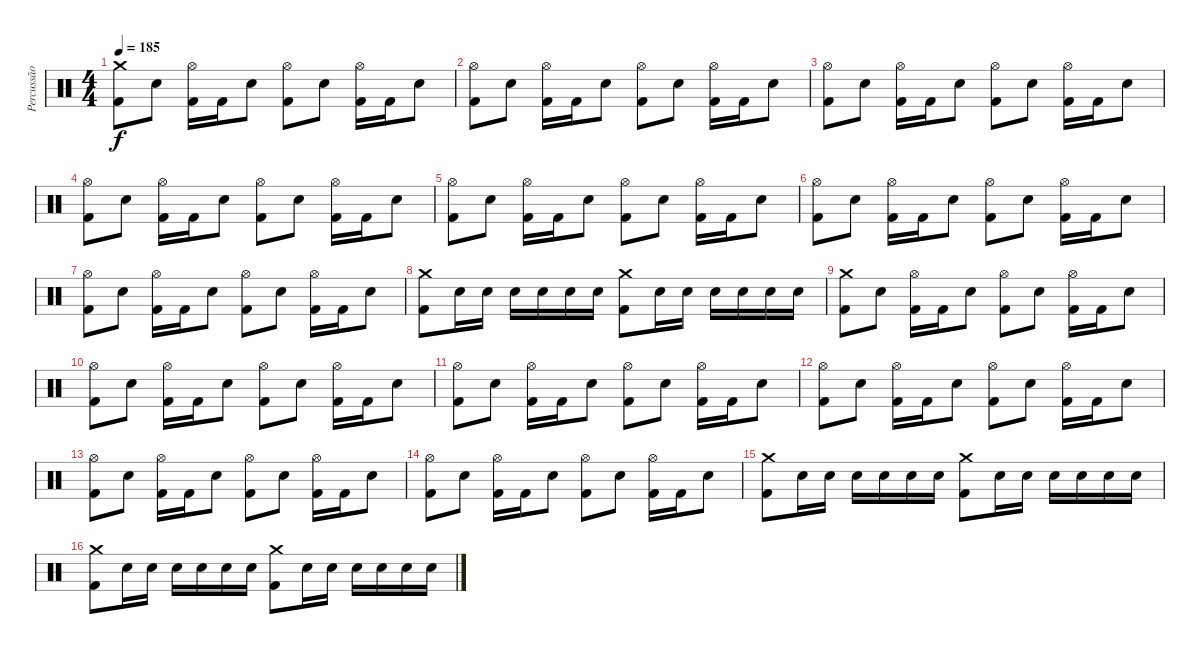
\track ("Percussão" "Percussão") {instrument percussion}
\staff {score}
\articulation defaults
\ts (4 4)
\tempo 185
\clef neutral
\ks c
("Crash medium (hit)" "Kick (hit) 2").8{dy f} "Snare (hit) 2".8 ("Hi-Hat (open)" "Kick (hit) 2").16 "Kick (hit) 2".16 "Snare (hit) 2".8 ("Hi-Hat (open)" "Kick (hit) 2").8 "Snare (hit) 2".8 ("Hi-Hat (open)" "Kick (hit) 2").16 "Kick (hit) 2".16 "Snare (hit) 2".8 |
("Hi-Hat (open)" "Kick (hit) 2").8 "Snare (hit) 2".8 ("Hi-Hat (open)" "Kick (hit) 2").16 "Kick (hit) 2".16 "Snare (hit) 2".8 ("Hi-Hat (open)" "Kick (hit) 2").8 "Snare (hit) 2".8 ("Hi-Hat (open)" "Kick (hit) 2").16 "Kick (hit) 2".16 "Snare (hit) 2".8 |
("Hi-Hat (open)" "Kick (hit) 2").8 "Snare (hit) 2".8 ("Hi-Hat (open)" "Kick (hit) 2").16 "Kick (hit) 2".16 "Snare (hit) 2".8 ("Hi-Hat (open)" "Kick (hit) 2").8 "Snare (hit) 2".8 ("Hi-Hat (open)" "Kick (hit) 2").16 "Kick (hit) 2".16 "Snare (hit) 2".8 |
("Hi-Hat (open)" "Kick (hit) 2").8 "Snare (hit) 2".8 ("Hi-Hat (open)" "Kick (hit) 2").16 "Kick (hit) 2".16 "Snare (hit) 2".8 ("Hi-Hat (open)" "Kick (hit) 2").8 "Snare (hit) 2".8 ("Hi-Hat (open)" "Kick (hit) 2").16 "Kick (hit) 2".16 "Snare (hit) 2".8 |
("Hi-Hat (open)" "Kick (hit) 2").8 "Snare (hit) 2".8 ("Hi-Hat (open)" "Kick (hit) 2").16 "Kick (hit) 2".16 "Snare (hit) 2".8 ("Hi-Hat (open)" "Kick (hit) 2").8 "Snare (hit) 2".8 ("Hi-Hat (open)" "Kick (hit) 2").16 "Kick (hit) 2".16 "Snare (hit) 2".8 |
("Hi-Hat (open)" "Kick (hit) 2").8 "Snare (hit) 2".8 ("Hi-Hat (open)" "Kick (hit) 2").16 "Kick (hit) 2".16 "Snare (hit) 2".8 ("Hi-Hat (open)" "Kick (hit) 2").8 "Snare (hit) 2".8 ("Hi-Hat (open)" "Kick (hit) 2").16 "Kick (hit) 2".16 "Snare (hit) 2".8 |
("Hi-Hat (open)" "Kick (hit) 2").8 "Snare (hit) 2".8 ("Hi-Hat (open)" "Kick (hit) 2").16 "Kick (hit) 2".16 "Snare (hit) 2".8 ("Hi-Hat (open)" "Kick (hit) 2").8 "Snare (hit) 2".8 ("Hi-Hat (open)" "Kick (hit) 2").16 "Kick (hit) 2".16 "Snare (hit) 2".8 |
("Crash medium (hit)" "Kick (hit) 2").8 "Snare (hit) 2".16 "Snare (hit) 2".16 "Snare (hit) 2".16 "Snare (hit) 2".16 "Snare (hit) 2".16 "Snare (hit) 2".16 ("Crash medium (hit)" "Kick (hit) 2").8 "Snare (hit) 2".16 "Snare (hit) 2".16 "Snare (hit) 2".16 "Snare (hit) 2".16 "Snare (hit) 2".16 "Snare (hit) 2".16 |
("Crash medium (hit)" "Kick (hit) 2").8 "Snare (hit) 2".8 ("Hi-Hat (open)" "Kick (hit) 2").16 "Kick (hit) 2".16 "Snare (hit) 2".8 ("Hi-Hat (open)" "Kick (hit) 2").8 "Snare (hit) 2".8 ("Hi-Hat (open)" "Kick (hit) 2").16 "Kick (hit) 2".16 "Snare (hit) 2".8 |
("Hi-Hat (open)" "Kick (hit) 2").8 "Snare (hit) 2".8 ("Hi-Hat (open)" "Kick (hit) 2").16 "Kick (hit) 2".16 "Snare (hit) 2".8 ("Hi-Hat (open)" "Kick (hit) 2").8 "Snare (hit) 2".8 ("Hi-Hat (open)" "Kick (hit) 2").16 "Kick (hit) 2".16 "Snare (hit) 2".8 |
("Hi-Hat (open)" "Kick (hit) 2").8 "Snare (hit) 2".8 ("Hi-Hat (open)" "Kick (hit) 2").16 "Kick (hit) 2".16 "Snare (hit) 2".8 ("Hi-Hat (open)" "Kick (hit) 2").8 "Snare (hit) 2".8 ("Hi-Hat (open)" "Kick (hit) 2").16 "Kick (hit) 2".16 "Snare (hit) 2".8 |
("Hi-Hat (open)" "Kick (hit) 2").8 "Snare (hit) 2".8 ("Hi-Hat (open)" "Kick (hit) 2").16 "Kick (hit) 2".16 "Snare (hit) 2".8 ("Hi-Hat (open)" "Kick (hit) 2").8 "Snare (hit) 2".8 ("Hi-Hat (open)" "Kick (hit) 2").16 "Kick (hit) 2".16 "Snare (hit) 2".8 |
("Hi-Hat (open)" "Kick (hit) 2").8 "Snare (hit) 2".8 ("Hi-Hat (open)" "Kick (hit) 2").16 "Kick (hit) 2".16 "Snare (hit) 2".8 ("Hi-Hat (open)" "Kick (hit) 2").8 "Snare (hit) 2".8 ("Hi-Hat (open)" "Kick (hit) 2").16 "Kick (hit) 2".16 "Snare (hit) 2".8 |
("Hi-Hat (open)" "Kick (hit) 2").8 "Snare (hit) 2".8 ("Hi-Hat (open)" "Kick (hit) 2").16 "Kick (hit) 2".16 "Snare (hit) 2".8 ("Hi-Hat (open)" "Kick (hit) 2").8 "Snare (hit) 2".8 ("Hi-Hat (open)" "Kick (hit) 2").16 "Kick (hit) 2".16 "Snare (hit) 2".8 |
("Crash medium (hit)" "Kick (hit) 2").8 "Snare (hit) 2".16 "Snare (hit) 2".16 "Snare (hit) 2".16 "Snare (hit) 2".16 "Snare (hit) 2".16 "Snare (hit) 2".16 ("Crash medium (hit)" "Kick (hit) 2").8 "Snare (hit) 2".16 "Snare (hit) 2".16 "Snare (hit) 2".16 "Snare (hit) 2".16 "Snare (hit) 2".16 "Snare (hit) 2".16 |
("Crash medium (hit)" "Kick (hit) 2").8 "Snare (hit) 2".16 "Snare (hit) 2".16 "Snare (hit) 2".16 "Snare (hit) 2".16 "Snare (hit) 2".16 "Snare (hit) 2".16 ("Crash medium (hit)" "Kick (hit) 2").8 "Snare (hit) 2".16 "Snare (hit) 2".16 "Snare (hit) 2".16 "Snare (hit) 2".16 "Snare (hit) 2".16 "Snare (hit) 2".16
